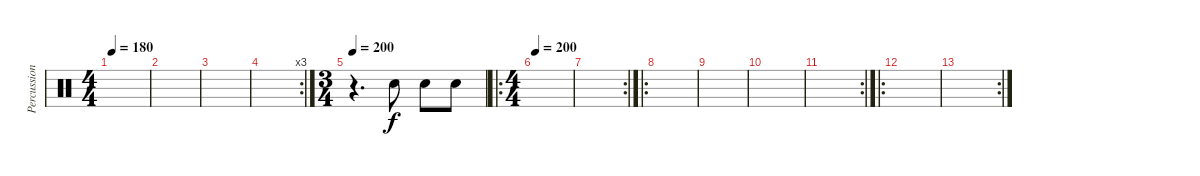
\track ("Percussions" "Percussion") {instrument percussion}
\staff {score}
\articulation defaults
\ts (4 4)
\tempo 180
\clef neutral
\ks c
|
|
|
\rc 3
|
\ts (3 4)
\tempo 200
r.4{d} "Electric Snare (hit)".8 "Electric Snare (hit)".8 "Electric Snare (hit)".8 |
\ro
\ts (4 4)
\tempo 200
|
\rc 2
|
\ro
|
|
|
\rc 2
|
\ro
|
\rc 2
